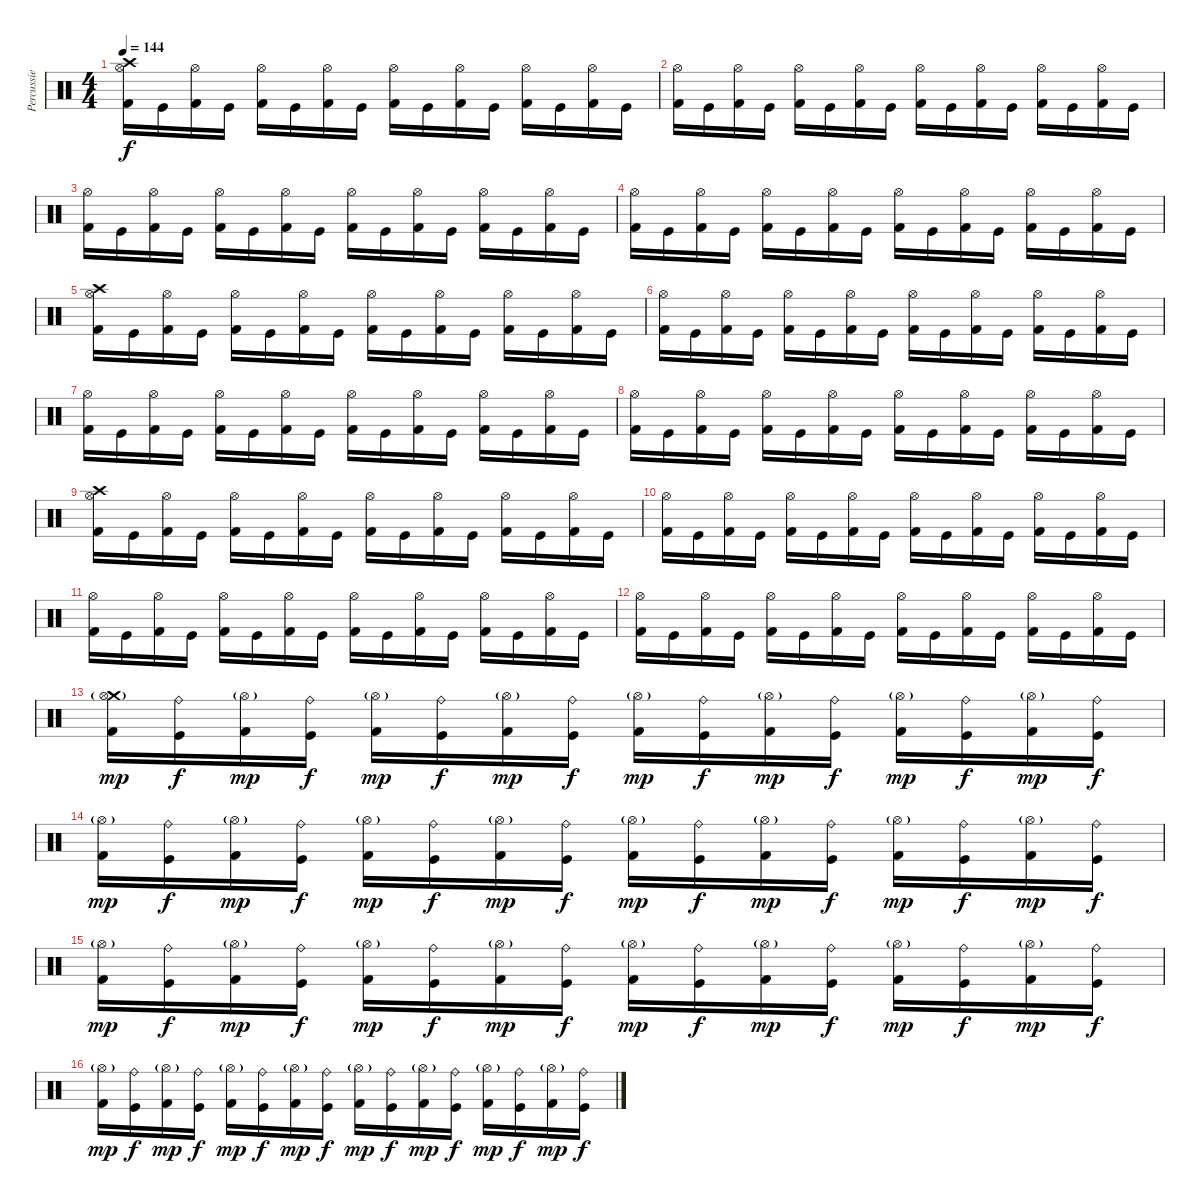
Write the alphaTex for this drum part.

\track ("Percussie" "Percussie") {instrument percussion}
\staff {score}
\articulation defaults
\ts (4 4)
\tempo 144
\clef neutral
\ks c
("Crash high (hit)" "Kick (hit) 2" "Hi-Hat (open)").16{dy f} "Kick (hit)".16 ("Kick (hit) 2" "Hi-Hat (open)").16 "Kick (hit)".16 ("Kick (hit) 2" "Hi-Hat (open)").16 "Kick (hit)".16 ("Kick (hit) 2" "Hi-Hat (open)").16 "Kick (hit)".16 ("Kick (hit) 2" "Hi-Hat (open)").16 "Kick (hit)".16 ("Kick (hit) 2" "Hi-Hat (open)").16 "Kick (hit)".16 ("Kick (hit) 2" "Hi-Hat (open)").16 "Kick (hit)".16 ("Kick (hit) 2" "Hi-Hat (open)").16 "Kick (hit)".16 |
("Kick (hit) 2" "Hi-Hat (open)").16 "Kick (hit)".16 ("Kick (hit) 2" "Hi-Hat (open)").16 "Kick (hit)".16 ("Kick (hit) 2" "Hi-Hat (open)").16 "Kick (hit)".16 ("Kick (hit) 2" "Hi-Hat (open)").16 "Kick (hit)".16 ("Kick (hit) 2" "Hi-Hat (open)").16 "Kick (hit)".16 ("Kick (hit) 2" "Hi-Hat (open)").16 "Kick (hit)".16 ("Kick (hit) 2" "Hi-Hat (open)").16 "Kick (hit)".16 ("Kick (hit) 2" "Hi-Hat (open)").16 "Kick (hit)".16 |
("Kick (hit) 2" "Hi-Hat (open)").16 "Kick (hit)".16 ("Kick (hit) 2" "Hi-Hat (open)").16 "Kick (hit)".16 ("Kick (hit) 2" "Hi-Hat (open)").16 "Kick (hit)".16 ("Kick (hit) 2" "Hi-Hat (open)").16 "Kick (hit)".16 ("Kick (hit) 2" "Hi-Hat (open)").16 "Kick (hit)".16 ("Kick (hit) 2" "Hi-Hat (open)").16 "Kick (hit)".16 ("Kick (hit) 2" "Hi-Hat (open)").16 "Kick (hit)".16 ("Kick (hit) 2" "Hi-Hat (open)").16 "Kick (hit)".16 |
("Kick (hit) 2" "Hi-Hat (open)").16 "Kick (hit)".16 ("Kick (hit) 2" "Hi-Hat (open)").16 "Kick (hit)".16 ("Kick (hit) 2" "Hi-Hat (open)").16 "Kick (hit)".16 ("Kick (hit) 2" "Hi-Hat (open)").16 "Kick (hit)".16 ("Kick (hit) 2" "Hi-Hat (open)").16 "Kick (hit)".16 ("Kick (hit) 2" "Hi-Hat (open)").16 "Kick (hit)".16 ("Kick (hit) 2" "Hi-Hat (open)").16 "Kick (hit)".16 ("Kick (hit) 2" "Hi-Hat (open)").16 "Kick (hit)".16 |
("Crash high (hit)" "Kick (hit) 2" "Hi-Hat (open)").16 "Kick (hit)".16 ("Kick (hit) 2" "Hi-Hat (open)").16 "Kick (hit)".16 ("Kick (hit) 2" "Hi-Hat (open)").16 "Kick (hit)".16 ("Kick (hit) 2" "Hi-Hat (open)").16 "Kick (hit)".16 ("Kick (hit) 2" "Hi-Hat (open)").16 "Kick (hit)".16 ("Kick (hit) 2" "Hi-Hat (open)").16 "Kick (hit)".16 ("Kick (hit) 2" "Hi-Hat (open)").16 "Kick (hit)".16 ("Kick (hit) 2" "Hi-Hat (open)").16 "Kick (hit)".16 |
("Kick (hit) 2" "Hi-Hat (open)").16 "Kick (hit)".16 ("Kick (hit) 2" "Hi-Hat (open)").16 "Kick (hit)".16 ("Kick (hit) 2" "Hi-Hat (open)").16 "Kick (hit)".16 ("Kick (hit) 2" "Hi-Hat (open)").16 "Kick (hit)".16 ("Kick (hit) 2" "Hi-Hat (open)").16 "Kick (hit)".16 ("Kick (hit) 2" "Hi-Hat (open)").16 "Kick (hit)".16 ("Kick (hit) 2" "Hi-Hat (open)").16 "Kick (hit)".16 ("Kick (hit) 2" "Hi-Hat (open)").16 "Kick (hit)".16 |
("Kick (hit) 2" "Hi-Hat (open)").16 "Kick (hit)".16 ("Kick (hit) 2" "Hi-Hat (open)").16 "Kick (hit)".16 ("Kick (hit) 2" "Hi-Hat (open)").16 "Kick (hit)".16 ("Kick (hit) 2" "Hi-Hat (open)").16 "Kick (hit)".16 ("Kick (hit) 2" "Hi-Hat (open)").16 "Kick (hit)".16 ("Kick (hit) 2" "Hi-Hat (open)").16 "Kick (hit)".16 ("Kick (hit) 2" "Hi-Hat (open)").16 "Kick (hit)".16 ("Kick (hit) 2" "Hi-Hat (open)").16 "Kick (hit)".16 |
("Kick (hit) 2" "Hi-Hat (open)").16 "Kick (hit)".16 ("Kick (hit) 2" "Hi-Hat (open)").16 "Kick (hit)".16 ("Kick (hit) 2" "Hi-Hat (open)").16 "Kick (hit)".16 ("Kick (hit) 2" "Hi-Hat (open)").16 "Kick (hit)".16 ("Kick (hit) 2" "Hi-Hat (open)").16 "Kick (hit)".16 ("Kick (hit) 2" "Hi-Hat (open)").16 "Kick (hit)".16 ("Kick (hit) 2" "Hi-Hat (open)").16 "Kick (hit)".16 ("Kick (hit) 2" "Hi-Hat (open)").16 "Kick (hit)".16 |
("Crash high (hit)" "Kick (hit) 2" "Hi-Hat (open)").16 "Kick (hit)".16 ("Kick (hit) 2" "Hi-Hat (open)").16 "Kick (hit)".16 ("Kick (hit) 2" "Hi-Hat (open)").16 "Kick (hit)".16 ("Kick (hit) 2" "Hi-Hat (open)").16 "Kick (hit)".16 ("Kick (hit) 2" "Hi-Hat (open)").16 "Kick (hit)".16 ("Kick (hit) 2" "Hi-Hat (open)").16 "Kick (hit)".16 ("Kick (hit) 2" "Hi-Hat (open)").16 "Kick (hit)".16 ("Kick (hit) 2" "Hi-Hat (open)").16 "Kick (hit)".16 |
("Kick (hit) 2" "Hi-Hat (open)").16 "Kick (hit)".16 ("Kick (hit) 2" "Hi-Hat (open)").16 "Kick (hit)".16 ("Kick (hit) 2" "Hi-Hat (open)").16 "Kick (hit)".16 ("Kick (hit) 2" "Hi-Hat (open)").16 "Kick (hit)".16 ("Kick (hit) 2" "Hi-Hat (open)").16 "Kick (hit)".16 ("Kick (hit) 2" "Hi-Hat (open)").16 "Kick (hit)".16 ("Kick (hit) 2" "Hi-Hat (open)").16 "Kick (hit)".16 ("Kick (hit) 2" "Hi-Hat (open)").16 "Kick (hit)".16 |
("Kick (hit) 2" "Hi-Hat (open)").16 "Kick (hit)".16 ("Kick (hit) 2" "Hi-Hat (open)").16 "Kick (hit)".16 ("Kick (hit) 2" "Hi-Hat (open)").16 "Kick (hit)".16 ("Kick (hit) 2" "Hi-Hat (open)").16 "Kick (hit)".16 ("Kick (hit) 2" "Hi-Hat (open)").16 "Kick (hit)".16 ("Kick (hit) 2" "Hi-Hat (open)").16 "Kick (hit)".16 ("Kick (hit) 2" "Hi-Hat (open)").16 "Kick (hit)".16 ("Kick (hit) 2" "Hi-Hat (open)").16 "Kick (hit)".16 |
("Kick (hit) 2" "Hi-Hat (open)").16 "Kick (hit)".16 ("Kick (hit) 2" "Hi-Hat (open)").16 "Kick (hit)".16 ("Kick (hit) 2" "Hi-Hat (open)").16 "Kick (hit)".16 ("Kick (hit) 2" "Hi-Hat (open)").16 "Kick (hit)".16 ("Kick (hit) 2" "Hi-Hat (open)").16 "Kick (hit)".16 ("Kick (hit) 2" "Hi-Hat (open)").16 "Kick (hit)".16 ("Kick (hit) 2" "Hi-Hat (open)").16 "Kick (hit)".16 ("Kick (hit) 2" "Hi-Hat (open)").16 "Kick (hit)".16 |
("Crash medium (hit)" "Kick (hit) 2" "Hi-Hat (open)"{g}).16{dy mp} ("Ride (bell)" "Kick (hit)").16{dy f} ("Kick (hit) 2" "Hi-Hat (open)"{g}).16{dy mp} ("Ride (bell)" "Kick (hit)").16{dy f} ("Kick (hit) 2" "Hi-Hat (open)"{g}).16{dy mp} ("Ride (bell)" "Kick (hit)").16{dy f} ("Kick (hit) 2" "Hi-Hat (open)"{g}).16{dy mp} ("Ride (bell)" "Kick (hit)").16{dy f} ("Kick (hit) 2" "Hi-Hat (open)"{g}).16{dy mp} ("Ride (bell)" "Kick (hit)").16{dy f} ("Kick (hit) 2" "Hi-Hat (open)"{g}).16{dy mp} ("Ride (bell)" "Kick (hit)").16{dy f} ("Kick (hit) 2" "Hi-Hat (open)"{g}).16{dy mp} ("Ride (bell)" "Kick (hit)").16{dy f} ("Kick (hit) 2" "Hi-Hat (open)"{g}).16{dy mp} ("Ride (bell)" "Kick (hit)").16{dy f} |
("Kick (hit) 2" "Hi-Hat (open)"{g}).16{dy mp} ("Ride (bell)" "Kick (hit)").16{dy f} ("Kick (hit) 2" "Hi-Hat (open)"{g}).16{dy mp} ("Ride (bell)" "Kick (hit)").16{dy f} ("Kick (hit) 2" "Hi-Hat (open)"{g}).16{dy mp} ("Ride (bell)" "Kick (hit)").16{dy f} ("Kick (hit) 2" "Hi-Hat (open)"{g}).16{dy mp} ("Ride (bell)" "Kick (hit)").16{dy f} ("Kick (hit) 2" "Hi-Hat (open)"{g}).16{dy mp} ("Ride (bell)" "Kick (hit)").16{dy f} ("Kick (hit) 2" "Hi-Hat (open)"{g}).16{dy mp} ("Ride (bell)" "Kick (hit)").16{dy f} ("Kick (hit) 2" "Hi-Hat (open)"{g}).16{dy mp} ("Ride (bell)" "Kick (hit)").16{dy f} ("Kick (hit) 2" "Hi-Hat (open)"{g}).16{dy mp} ("Ride (bell)" "Kick (hit)").16{dy f} |
("Kick (hit) 2" "Hi-Hat (open)"{g}).16{dy mp} ("Ride (bell)" "Kick (hit)").16{dy f} ("Kick (hit) 2" "Hi-Hat (open)"{g}).16{dy mp} ("Ride (bell)" "Kick (hit)").16{dy f} ("Kick (hit) 2" "Hi-Hat (open)"{g}).16{dy mp} ("Ride (bell)" "Kick (hit)").16{dy f} ("Kick (hit) 2" "Hi-Hat (open)"{g}).16{dy mp} ("Ride (bell)" "Kick (hit)").16{dy f} ("Kick (hit) 2" "Hi-Hat (open)"{g}).16{dy mp} ("Ride (bell)" "Kick (hit)").16{dy f} ("Kick (hit) 2" "Hi-Hat (open)"{g}).16{dy mp} ("Ride (bell)" "Kick (hit)").16{dy f} ("Kick (hit) 2" "Hi-Hat (open)"{g}).16{dy mp} ("Ride (bell)" "Kick (hit)").16{dy f} ("Kick (hit) 2" "Hi-Hat (open)"{g}).16{dy mp} ("Ride (bell)" "Kick (hit)").16{dy f} |
("Kick (hit) 2" "Hi-Hat (open)"{g}).16{dy mp} ("Ride (bell)" "Kick (hit)").16{dy f} ("Kick (hit) 2" "Hi-Hat (open)"{g}).16{dy mp} ("Ride (bell)" "Kick (hit)").16{dy f} ("Kick (hit) 2" "Hi-Hat (open)"{g}).16{dy mp} ("Ride (bell)" "Kick (hit)").16{dy f} ("Kick (hit) 2" "Hi-Hat (open)"{g}).16{dy mp} ("Ride (bell)" "Kick (hit)").16{dy f} ("Kick (hit) 2" "Hi-Hat (open)"{g}).16{dy mp} ("Ride (bell)" "Kick (hit)").16{dy f} ("Kick (hit) 2" "Hi-Hat (open)"{g}).16{dy mp} ("Ride (bell)" "Kick (hit)").16{dy f} ("Kick (hit) 2" "Hi-Hat (open)"{g}).16{dy mp} ("Ride (bell)" "Kick (hit)").16{dy f} ("Kick (hit) 2" "Hi-Hat (open)"{g}).16{dy mp} ("Ride (bell)" "Kick (hit)").16{dy f}
